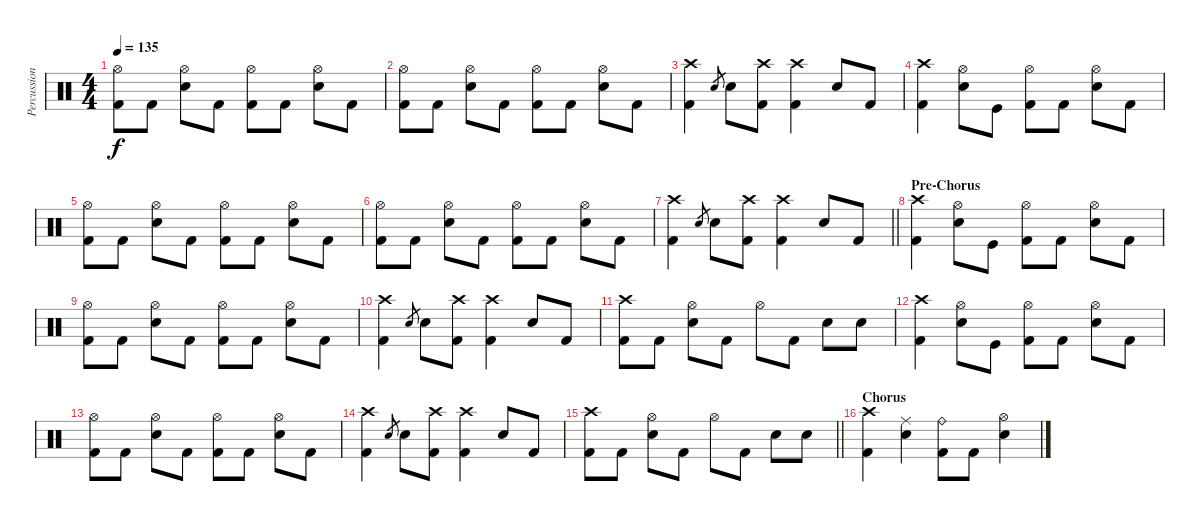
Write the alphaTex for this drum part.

\track ("Percussion" "Percussion") {instrument percussion}
\staff {score}
\articulation defaults
\ts (4 4)
\tempo 135
\clef neutral
\ks c
("Hi-Hat (open)" "Kick (hit) 2").8{dy f} "Kick (hit) 2".8 ("Electric Snare (hit)" "Hi-Hat (open)").8 "Kick (hit) 2".8 ("Hi-Hat (open)" "Kick (hit) 2").8 "Kick (hit) 2".8 ("Electric Snare (hit)" "Hi-Hat (open)").8 "Kick (hit) 2".8 |
("Hi-Hat (open)" "Kick (hit) 2").8 "Kick (hit) 2".8 ("Electric Snare (hit)" "Hi-Hat (open)").8 "Kick (hit) 2".8 ("Hi-Hat (open)" "Kick (hit) 2").8 "Kick (hit) 2".8 ("Electric Snare (hit)" "Hi-Hat (open)").8 "Kick (hit) 2".8 |
("Crash high (hit)" "Kick (hit) 2").4 "Electric Snare (hit)".8{gr} "Electric Snare (hit)".8 ("Crash high (hit)" "Kick (hit) 2").8 ("Crash high (hit)" "Kick (hit) 2").4 "Electric Snare (hit)".8 "Kick (hit) 2".8 |
("Crash high (hit)" "Kick (hit) 2").4 ("Electric Snare (hit)" "Hi-Hat (open)").8 "Kick (hit)".8 ("Hi-Hat (open)" "Kick (hit) 2").8 "Kick (hit) 2".8 ("Electric Snare (hit)" "Hi-Hat (open)").8 "Kick (hit) 2".8 |
("Hi-Hat (open)" "Kick (hit) 2").8 "Kick (hit) 2".8 ("Electric Snare (hit)" "Hi-Hat (open)").8 "Kick (hit) 2".8 ("Hi-Hat (open)" "Kick (hit) 2").8 "Kick (hit) 2".8 ("Electric Snare (hit)" "Hi-Hat (open)").8 "Kick (hit) 2".8 |
("Hi-Hat (open)" "Kick (hit) 2").8 "Kick (hit) 2".8 ("Electric Snare (hit)" "Hi-Hat (open)").8 "Kick (hit) 2".8 ("Hi-Hat (open)" "Kick (hit) 2").8 "Kick (hit) 2".8 ("Electric Snare (hit)" "Hi-Hat (open)").8 "Kick (hit) 2".8 |
\barLineRight lightlight
("Crash high (hit)" "Kick (hit) 2").4 "Electric Snare (hit)".8{gr} "Electric Snare (hit)".8 ("Crash high (hit)" "Kick (hit) 2").8 ("Crash high (hit)" "Kick (hit) 2").4 "Electric Snare (hit)".8 "Kick (hit) 2".8 |
\section ("" "Pre-Chorus")
("Crash high (hit)" "Kick (hit) 2").4 ("Electric Snare (hit)" "Hi-Hat (open)").8 "Kick (hit)".8 ("Hi-Hat (open)" "Kick (hit) 2").8 "Kick (hit) 2".8 ("Electric Snare (hit)" "Hi-Hat (open)").8 "Kick (hit) 2".8 |
("Hi-Hat (open)" "Kick (hit) 2").8 "Kick (hit) 2".8 ("Electric Snare (hit)" "Hi-Hat (open)").8 "Kick (hit) 2".8 ("Hi-Hat (open)" "Kick (hit) 2").8 "Kick (hit) 2".8 ("Electric Snare (hit)" "Hi-Hat (open)").8 "Kick (hit) 2".8 |
("Crash high (hit)" "Kick (hit) 2").4 "Electric Snare (hit)".8{gr} "Electric Snare (hit)".8 ("Crash high (hit)" "Kick (hit) 2").8 ("Crash high (hit)" "Kick (hit) 2").4 "Electric Snare (hit)".8 "Kick (hit) 2".8 |
("Crash high (hit)" "Kick (hit) 2").8 "Kick (hit) 2".8 ("Hi-Hat (open)" "Electric Snare (hit)").8 "Kick (hit) 2".8 "Hi-Hat (open)".8 "Kick (hit) 2".8 "Electric Snare (hit)".8 "Electric Snare (hit)".8 |
("Crash high (hit)" "Kick (hit) 2").4 ("Electric Snare (hit)" "Hi-Hat (open)").8 "Kick (hit)".8 ("Hi-Hat (open)" "Kick (hit) 2").8 "Kick (hit) 2".8 ("Electric Snare (hit)" "Hi-Hat (open)").8 "Kick (hit) 2".8 |
("Hi-Hat (open)" "Kick (hit) 2").8 "Kick (hit) 2".8 ("Electric Snare (hit)" "Hi-Hat (open)").8 "Kick (hit) 2".8 ("Hi-Hat (open)" "Kick (hit) 2").8 "Kick (hit) 2".8 ("Electric Snare (hit)" "Hi-Hat (open)").8 "Kick (hit) 2".8 |
("Crash high (hit)" "Kick (hit) 2").4 "Electric Snare (hit)".8{gr} "Electric Snare (hit)".8 ("Crash high (hit)" "Kick (hit) 2").8 ("Crash high (hit)" "Kick (hit) 2").4 "Electric Snare (hit)".8 "Kick (hit) 2".8 |
\barLineRight lightlight
("Crash high (hit)" "Kick (hit) 2").8 "Kick (hit) 2".8 ("Hi-Hat (open)" "Electric Snare (hit)").8 "Kick (hit) 2".8 "Hi-Hat (open)".8 "Kick (hit) 2".8 "Electric Snare (hit)".8 "Electric Snare (hit)".8 |
\section ("" "Chorus")
("Crash high (hit)" "Kick (hit) 2").4 ("Ride (middle)" "Electric Snare (hit)").4 ("Ride (bell)" "Kick (hit) 2").8 "Kick (hit) 2".8 ("Hi-Hat (open)" "Electric Snare (hit)").4
